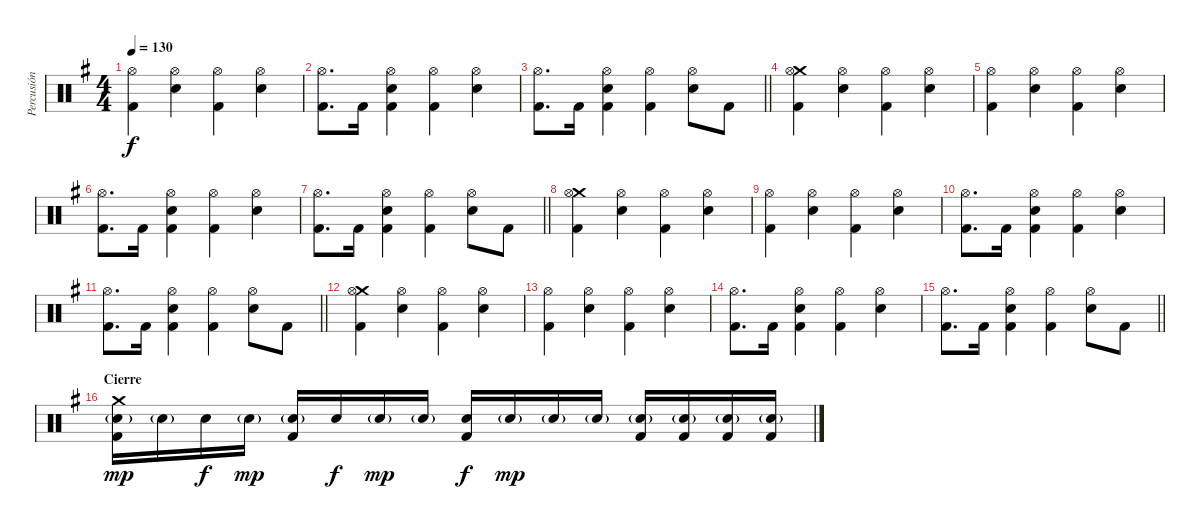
\track ("Percusión" "Percusión") {instrument percussion}
\staff {score}
\articulation defaults
\ts (4 4)
\tempo 130
\clef neutral
\ks g
("Hi-Hat (open)" "Kick (hit) 2").4{dy f} ("Hi-Hat (open)" "Electric Snare (hit)").4 ("Hi-Hat (open)" "Kick (hit) 2").4 ("Hi-Hat (open)" "Electric Snare (hit)").4 |
("Hi-Hat (open)" "Kick (hit) 2").8{d} "Kick (hit) 2".16 ("Hi-Hat (open)" "Electric Snare (hit)" "Kick (hit) 2").4 ("Hi-Hat (open)" "Kick (hit) 2").4 ("Hi-Hat (open)" "Electric Snare (hit)").4 |
\barLineRight lightlight
("Hi-Hat (open)" "Kick (hit) 2").8{d} "Kick (hit) 2".16 ("Hi-Hat (open)" "Electric Snare (hit)" "Kick (hit) 2").4 ("Hi-Hat (open)" "Kick (hit) 2").4 ("Hi-Hat (open)" "Electric Snare (hit)").8 "Kick (hit) 2".8 |
("Crash medium (hit)" "Hi-Hat (open)" "Kick (hit) 2").4 ("Hi-Hat (open)" "Electric Snare (hit)").4 ("Hi-Hat (open)" "Kick (hit) 2").4 ("Hi-Hat (open)" "Electric Snare (hit)").4 |
("Hi-Hat (open)" "Kick (hit) 2").4 ("Hi-Hat (open)" "Electric Snare (hit)").4 ("Hi-Hat (open)" "Kick (hit) 2").4 ("Hi-Hat (open)" "Electric Snare (hit)").4 |
("Hi-Hat (open)" "Kick (hit) 2").8{d} "Kick (hit) 2".16 ("Hi-Hat (open)" "Electric Snare (hit)" "Kick (hit) 2").4 ("Hi-Hat (open)" "Kick (hit) 2").4 ("Hi-Hat (open)" "Electric Snare (hit)").4 |
\barLineRight lightlight
("Hi-Hat (open)" "Kick (hit) 2").8{d} "Kick (hit) 2".16 ("Hi-Hat (open)" "Electric Snare (hit)" "Kick (hit) 2").4 ("Hi-Hat (open)" "Kick (hit) 2").4 ("Hi-Hat (open)" "Electric Snare (hit)").8 "Kick (hit) 2".8 |
("Crash medium (hit)" "Hi-Hat (open)" "Kick (hit) 2").4 ("Hi-Hat (open)" "Electric Snare (hit)").4 ("Hi-Hat (open)" "Kick (hit) 2").4 ("Hi-Hat (open)" "Electric Snare (hit)").4 |
("Hi-Hat (open)" "Kick (hit) 2").4 ("Hi-Hat (open)" "Electric Snare (hit)").4 ("Hi-Hat (open)" "Kick (hit) 2").4 ("Hi-Hat (open)" "Electric Snare (hit)").4 |
("Hi-Hat (open)" "Kick (hit) 2").8{d} "Kick (hit) 2".16 ("Hi-Hat (open)" "Electric Snare (hit)" "Kick (hit) 2").4 ("Hi-Hat (open)" "Kick (hit) 2").4 ("Hi-Hat (open)" "Electric Snare (hit)").4 |
\barLineRight lightlight
("Hi-Hat (open)" "Kick (hit) 2").8{d} "Kick (hit) 2".16 ("Hi-Hat (open)" "Electric Snare (hit)" "Kick (hit) 2").4 ("Hi-Hat (open)" "Kick (hit) 2").4 ("Hi-Hat (open)" "Electric Snare (hit)").8 "Kick (hit) 2".8 |
("Crash medium (hit)" "Hi-Hat (open)" "Kick (hit) 2").4 ("Hi-Hat (open)" "Electric Snare (hit)").4 ("Hi-Hat (open)" "Kick (hit) 2").4 ("Hi-Hat (open)" "Electric Snare (hit)").4 |
("Hi-Hat (open)" "Kick (hit) 2").4 ("Hi-Hat (open)" "Electric Snare (hit)").4 ("Hi-Hat (open)" "Kick (hit) 2").4 ("Hi-Hat (open)" "Electric Snare (hit)").4 |
("Hi-Hat (open)" "Kick (hit) 2").8{d} "Kick (hit) 2".16 ("Hi-Hat (open)" "Electric Snare (hit)" "Kick (hit) 2").4 ("Hi-Hat (open)" "Kick (hit) 2").4 ("Hi-Hat (open)" "Electric Snare (hit)").4 |
\barLineRight lightlight
("Hi-Hat (open)" "Kick (hit) 2").8{d} "Kick (hit) 2".16 ("Hi-Hat (open)" "Electric Snare (hit)" "Kick (hit) 2").4 ("Hi-Hat (open)" "Kick (hit) 2").4 ("Hi-Hat (open)" "Electric Snare (hit)").8 "Kick (hit) 2".8 |
\section ("" "Cierre")
("Crash medium (hit)" "Electric Snare (hit)"{g} "Kick (hit) 2").16{dy mp} "Electric Snare (hit)"{g}.16 "Electric Snare (hit)".16{dy f} "Electric Snare (hit)"{g}.16{dy mp} ("Electric Snare (hit)"{g} "Kick (hit) 2").16 "Electric Snare (hit)".16{dy f} "Electric Snare (hit)"{g}.16{dy mp} "Electric Snare (hit)"{g}.16 ("Electric Snare (hit)" "Kick (hit) 2").16{dy f} "Electric Snare (hit)"{g}.16{dy mp} "Electric Snare (hit)"{g}.16 "Electric Snare (hit)"{g}.16 ("Electric Snare (hit)"{g} "Kick (hit) 2").16 ("Electric Snare (hit)"{g} "Kick (hit) 2").16 ("Electric Snare (hit)"{g} "Kick (hit) 2").16 ("Electric Snare (hit)"{g} "Kick (hit) 2").16
